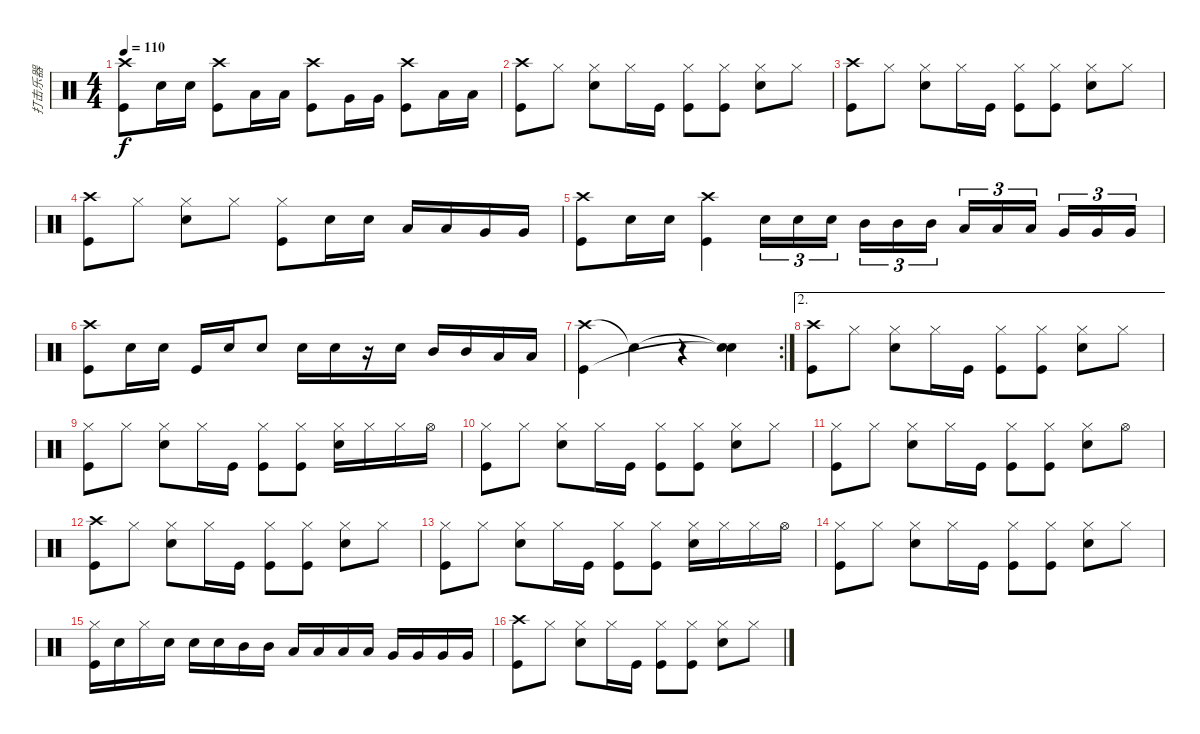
\track ("打击乐器" "打击乐器") {instrument percussion}
\staff {score}
\articulation defaults
\ts (4 4)
\tempo 110
\clef neutral
\ks c
("Crash high (hit)" "Kick (hit)").8{dy f} "Snare (hit) 2".16 "Snare (hit) 2".16 ("Crash high (hit)" "Kick (hit)").8 "Low Tom (hit)".16 "Low Tom (hit)".16 ("Crash high (hit)" "Kick (hit)").8 "Very Low Tom (hit)".16 "Very Low Tom (hit)".16 ("Crash high (hit)" "Kick (hit)").8 "Low Floor Tom (hit)".16 "Low Floor Tom (hit)".16 |
("Crash high (hit)" "Kick (hit)").8 "Hi-Hat (closed)".8 ("Hi-Hat (closed)" "Snare (hit) 2").8 "Hi-Hat (closed)".16 "Kick (hit)".16 ("Hi-Hat (closed)" "Kick (hit)").8 ("Hi-Hat (closed)" "Kick (hit)").8 ("Hi-Hat (closed)" "Snare (hit) 2").8 "Hi-Hat (closed)".8 |
("Crash high (hit)" "Kick (hit)").8 "Hi-Hat (closed)".8 ("Hi-Hat (closed)" "Snare (hit) 2").8 "Hi-Hat (closed)".16 "Kick (hit)".16 ("Hi-Hat (closed)" "Kick (hit)").8 ("Hi-Hat (closed)" "Kick (hit)").8 ("Hi-Hat (closed)" "Snare (hit) 2").8 "Hi-Hat (closed)".8 |
("Crash high (hit)" "Kick (hit)").8 "Hi-Hat (closed)".8 ("Hi-Hat (closed)" "Snare (hit) 2").8 "Hi-Hat (closed)".8 ("Hi-Hat (closed)" "Kick (hit)").8 "Snare (hit) 2".16 "Snare (hit) 2".16 "Low Tom (hit)".16 "Low Tom (hit)".16 "Very Low Tom (hit)".16 "Very Low Tom (hit)".16 |
("Crash high (hit)" "Kick (hit)").8 "Snare (hit) 2".16 "Snare (hit) 2".16 ("Crash high (hit)" "Kick (hit)").4 "Snare (hit) 2".16{tu (3 2)} "Snare (hit) 2".16{tu (3 2)} "Snare (hit) 2".16{tu (3 2)} "Mid Tom (hit)".16{tu (3 2)} "Mid Tom (hit)".16{tu (3 2)} "Mid Tom (hit)".16{tu (3 2)} "Low Tom (hit)".16{tu (3 2)} "Low Tom (hit)".16{tu (3 2)} "Low Tom (hit)".16{tu (3 2)} "Very Low Tom (hit)".16{tu (3 2)} "Very Low Tom (hit)".16{tu (3 2)} "Very Low Tom (hit)".16{tu (3 2)} |
("Crash high (hit)" "Kick (hit)").8 "Snare (hit) 2".16 "Snare (hit) 2".16 "Kick (hit)".16 "Snare (hit) 2".16 "Snare (hit) 2".8 "Snare (hit) 2".16 "Snare (hit) 2".16 r.16 "Snare (hit) 2".16 "Mid Tom (hit)".16 "Mid Tom (hit)".16 "Low Tom (hit)".16 "Low Tom (hit)".16 |
\rc 2
("Crash high (hit)" "Kick (hit)").4 "Snare (hit)"{t}.4 r.4 ("Snare (hit)"{t} "Snare (hit)"{t}).4 |
\ae 2
("Crash high (hit)" "Kick (hit)").8 "Hi-Hat (closed)".8 ("Hi-Hat (closed)" "Snare (hit) 2").8 "Hi-Hat (closed)".16 "Kick (hit)".16 ("Hi-Hat (closed)" "Kick (hit)").8 ("Hi-Hat (closed)" "Kick (hit)").8 ("Hi-Hat (closed)" "Snare (hit) 2").8 "Hi-Hat (closed)".8 |
("Hi-Hat (closed)" "Kick (hit)").8 "Hi-Hat (closed)".8 ("Hi-Hat (closed)" "Snare (hit) 2").8 "Hi-Hat (closed)".16 "Kick (hit)".16 ("Hi-Hat (closed)" "Kick (hit)").8 ("Hi-Hat (closed)" "Kick (hit)").8 ("Hi-Hat (closed)" "Snare (hit) 2").16 "Hi-Hat (closed)".16 "Hi-Hat (closed)".16 "Hi-Hat (open)".16 |
("Hi-Hat (closed)" "Kick (hit)").8 "Hi-Hat (closed)".8 ("Hi-Hat (closed)" "Snare (hit) 2").8 "Hi-Hat (closed)".16 "Kick (hit)".16 ("Hi-Hat (closed)" "Kick (hit)").8 ("Hi-Hat (closed)" "Kick (hit)").8 ("Hi-Hat (closed)" "Snare (hit) 2").8 "Hi-Hat (closed)".8 |
("Hi-Hat (closed)" "Kick (hit)").8 "Hi-Hat (closed)".8 ("Hi-Hat (closed)" "Snare (hit) 2").8 "Hi-Hat (closed)".16 "Kick (hit)".16 ("Hi-Hat (closed)" "Kick (hit)").8 ("Hi-Hat (closed)" "Kick (hit)").8 ("Hi-Hat (closed)" "Snare (hit) 2").8 "Hi-Hat (open)".8 |
("Crash high (hit)" "Kick (hit)").8 "Hi-Hat (closed)".8 ("Hi-Hat (closed)" "Snare (hit) 2").8 "Hi-Hat (closed)".16 "Kick (hit)".16 ("Hi-Hat (closed)" "Kick (hit)").8 ("Hi-Hat (closed)" "Kick (hit)").8 ("Hi-Hat (closed)" "Snare (hit) 2").8 "Hi-Hat (closed)".8 |
("Hi-Hat (closed)" "Kick (hit)").8 "Hi-Hat (closed)".8 ("Hi-Hat (closed)" "Snare (hit) 2").8 "Hi-Hat (closed)".16 "Kick (hit)".16 ("Hi-Hat (closed)" "Kick (hit)").8 ("Hi-Hat (closed)" "Kick (hit)").8 ("Hi-Hat (closed)" "Snare (hit) 2").16 "Hi-Hat (closed)".16 "Hi-Hat (closed)".16 "Hi-Hat (open)".16 |
("Hi-Hat (closed)" "Kick (hit)").8 "Hi-Hat (closed)".8 ("Hi-Hat (closed)" "Snare (hit) 2").8 "Hi-Hat (closed)".16 "Kick (hit)".16 ("Hi-Hat (closed)" "Kick (hit)").8 ("Hi-Hat (closed)" "Kick (hit)").8 ("Hi-Hat (closed)" "Snare (hit) 2").8 "Hi-Hat (closed)".8 |
("Hi-Hat (closed)" "Kick (hit)").16 "Snare (hit) 2".16 "Hi-Hat (closed)".16 "Snare (hit) 2".16 "Snare (hit) 2".16 "Snare (hit) 2".16 "Mid Tom (hit)".16 "Mid Tom (hit)".16 "Low Tom (hit)".16 "Low Tom (hit)".16 "Low Tom (hit)".16 "Low Tom (hit)".16 "Very Low Tom (hit)".16 "Very Low Tom (hit)".16 "Very Low Tom (hit)".16 "Very Low Tom (hit)".16 |
("Crash high (hit)" "Kick (hit)").8 "Hi-Hat (closed)".8 ("Hi-Hat (closed)" "Snare (hit) 2").8 "Hi-Hat (closed)".16 "Kick (hit)".16 ("Hi-Hat (closed)" "Kick (hit)").8 ("Hi-Hat (closed)" "Kick (hit)").8 ("Hi-Hat (closed)" "Snare (hit) 2").8 "Hi-Hat (closed)".8
